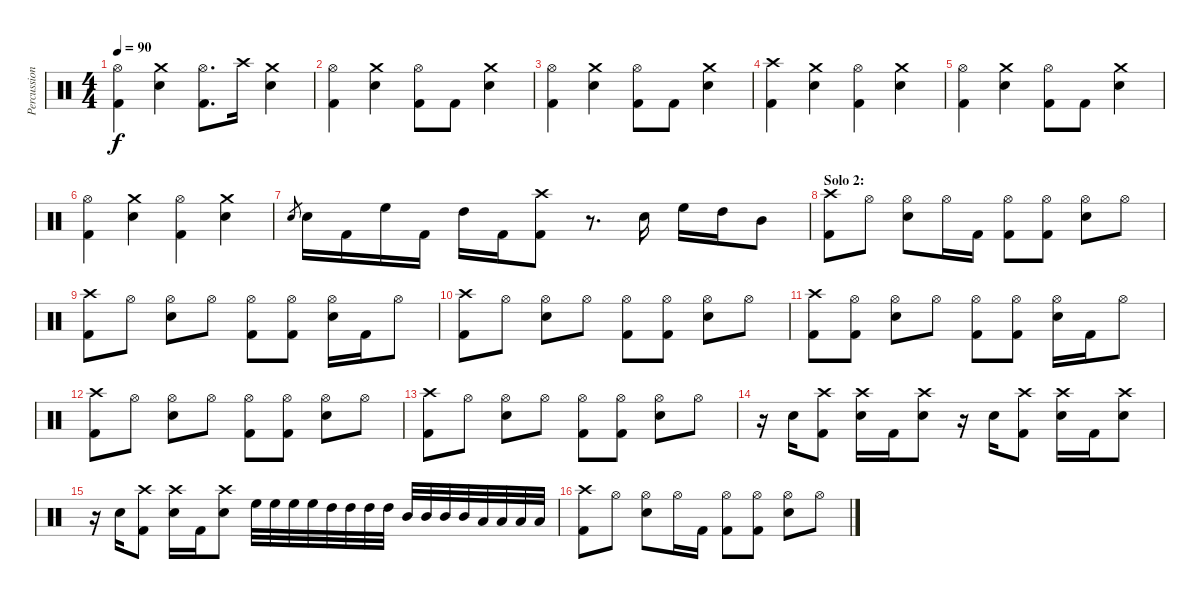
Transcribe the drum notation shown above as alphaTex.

\track ("Percussion" "Percussion") {instrument percussion}
\staff {score}
\articulation defaults
\ts (4 4)
\tempo 90
\clef neutral
\ks c
("Hi-Hat (open)" "Kick (hit) 2").4{dy f} ("Crash medium (hit)" "Electric Snare (hit)").4 ("Hi-Hat (open)" "Kick (hit) 2").8{d} "Crash high (hit)".16 ("Crash medium (hit)" "Electric Snare (hit)").4 |
("Hi-Hat (open)" "Kick (hit) 2").4 ("Crash medium (hit)" "Electric Snare (hit)").4 ("Hi-Hat (open)" "Kick (hit) 2").8 "Kick (hit) 2".8 ("Crash medium (hit)" "Electric Snare (hit)").4 |
("Hi-Hat (open)" "Kick (hit) 2").4 ("Crash medium (hit)" "Electric Snare (hit)").4 ("Hi-Hat (open)" "Kick (hit) 2").8 "Kick (hit) 2".8 ("Crash medium (hit)" "Electric Snare (hit)").4 |
("Crash high (hit)" "Kick (hit) 2").4 ("Crash medium (hit)" "Electric Snare (hit)").4 ("Hi-Hat (open)" "Kick (hit) 2").4 ("Crash medium (hit)" "Electric Snare (hit)").4 |
("Hi-Hat (open)" "Kick (hit) 2").4 ("Crash medium (hit)" "Electric Snare (hit)").4 ("Hi-Hat (open)" "Kick (hit) 2").8 "Kick (hit) 2".8 ("Crash medium (hit)" "Electric Snare (hit)").4 |
("Hi-Hat (open)" "Kick (hit) 2").4 ("Crash medium (hit)" "Electric Snare (hit)").4 ("Hi-Hat (open)" "Kick (hit) 2").4 ("Crash medium (hit)" "Electric Snare (hit)").4 |
"Electric Snare (hit)".8{gr} "Electric Snare (hit)".16 "Kick (hit) 2".16 "High Floor Tom (hit)".16 "Kick (hit) 2".16 "High Tom (hit)".16 "Kick (hit) 2".16 ("Crash high (hit)" "Kick (hit) 2").8 r.8{d} "Electric Snare (hit)".16 "High Floor Tom (hit)".16 "High Tom (hit)".16 "Mid Tom (hit)".8 |
\section ("" "Solo 2:")
("Crash high (hit)" "Kick (hit) 2").8 "Hi-Hat (open)".8 ("Hi-Hat (open)" "Electric Snare (hit)").8 "Hi-Hat (open)".16 "Kick (hit) 2".16 ("Hi-Hat (open)" "Kick (hit) 2").8 ("Hi-Hat (open)" "Kick (hit) 2").8 ("Hi-Hat (open)" "Electric Snare (hit)").8 "Hi-Hat (open)".8 |
("Crash high (hit)" "Kick (hit) 2").8 "Hi-Hat (open)".8 ("Hi-Hat (open)" "Electric Snare (hit)").8 "Hi-Hat (open)".8 ("Hi-Hat (open)" "Kick (hit) 2").8 ("Hi-Hat (open)" "Kick (hit) 2").8 ("Hi-Hat (open)" "Electric Snare (hit)").16 "Kick (hit) 2".16 "Hi-Hat (open)".8 |
("Crash high (hit)" "Kick (hit) 2").8 "Hi-Hat (open)".8 ("Hi-Hat (open)" "Electric Snare (hit)").8 "Hi-Hat (open)".8 ("Hi-Hat (open)" "Kick (hit) 2").8 ("Hi-Hat (open)" "Kick (hit) 2").8 ("Hi-Hat (open)" "Electric Snare (hit)").8 "Hi-Hat (open)".8 |
("Crash high (hit)" "Kick (hit) 2").8 ("Hi-Hat (open)" "Kick (hit) 2").8 ("Hi-Hat (open)" "Electric Snare (hit)").8 "Hi-Hat (open)".8 ("Hi-Hat (open)" "Kick (hit) 2").8 ("Hi-Hat (open)" "Kick (hit) 2").8 ("Hi-Hat (open)" "Electric Snare (hit)").16 "Kick (hit) 2".16 "Hi-Hat (open)".8 |
("Crash high (hit)" "Kick (hit) 2").8 "Hi-Hat (open)".8 ("Hi-Hat (open)" "Electric Snare (hit)").8 "Hi-Hat (open)".8 ("Hi-Hat (open)" "Kick (hit) 2").8 ("Hi-Hat (open)" "Kick (hit) 2").8 ("Hi-Hat (open)" "Electric Snare (hit)").8 "Hi-Hat (open)".8 |
("Crash high (hit)" "Kick (hit) 2").8 "Hi-Hat (open)".8 ("Hi-Hat (open)" "Electric Snare (hit)").8 "Hi-Hat (open)".8 ("Hi-Hat (open)" "Kick (hit) 2").8 ("Hi-Hat (open)" "Kick (hit) 2").8 ("Hi-Hat (open)" "Electric Snare (hit)").8 "Hi-Hat (open)".8 |
r.16 "Electric Snare (hit)".16 ("Crash high (hit)" "Kick (hit) 2").8 ("Crash high (hit)" "Electric Snare (hit)").16 "Kick (hit) 2".16 ("Crash high (hit)" "Electric Snare (hit)").8 r.16 "Electric Snare (hit)".16 ("Crash high (hit)" "Kick (hit) 2").8 ("Crash high (hit)" "Electric Snare (hit)").16 "Kick (hit) 2".16 ("Crash high (hit)" "Electric Snare (hit)").8 |
r.16 "Electric Snare (hit)".16 ("Crash high (hit)" "Kick (hit) 2").8 ("Crash high (hit)" "Electric Snare (hit)").16 "Kick (hit) 2".16 ("Crash high (hit)" "Electric Snare (hit)").8 "High Floor Tom (hit)".32 "High Floor Tom (hit)".32 "High Floor Tom (hit)".32 "High Floor Tom (hit)".32 "High Tom (hit)".32 "High Tom (hit)".32 "High Tom (hit)".32 "High Tom (hit)".32 "Mid Tom (hit)".32 "Mid Tom (hit)".32 "Mid Tom (hit)".32 "Mid Tom (hit)".32 "Low Tom (hit)".32 "Low Tom (hit)".32 "Low Tom (hit)".32 "Low Tom (hit)".32 |
("Crash high (hit)" "Kick (hit) 2").8 "Hi-Hat (open)".8 ("Hi-Hat (open)" "Electric Snare (hit)").8 "Hi-Hat (open)".16 "Kick (hit) 2".16 ("Hi-Hat (open)" "Kick (hit) 2").8 ("Hi-Hat (open)" "Kick (hit) 2").8 ("Hi-Hat (open)" "Electric Snare (hit)").8 "Hi-Hat (open)".8
